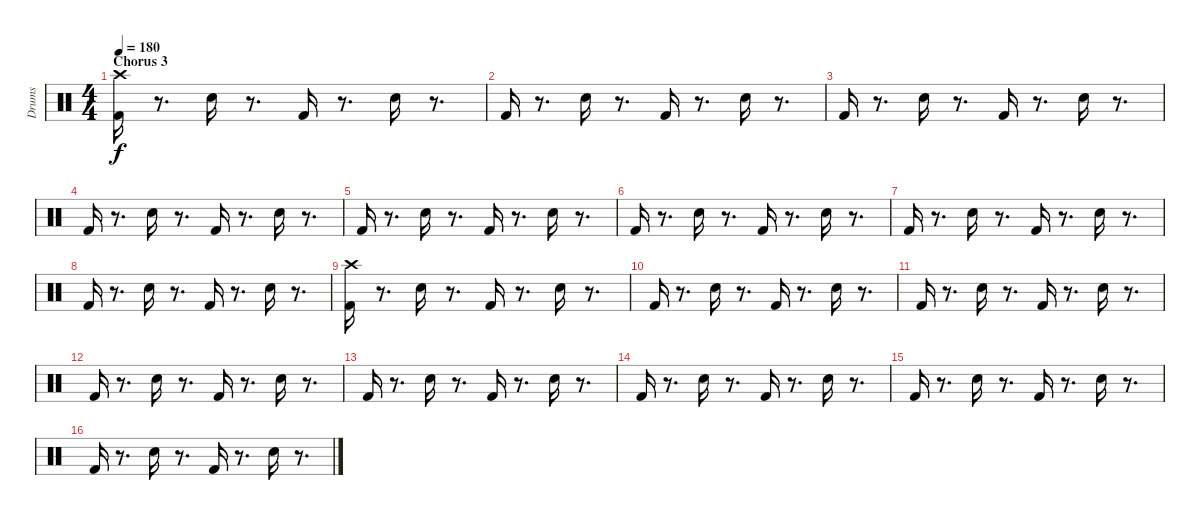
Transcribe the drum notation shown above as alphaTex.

\track ("Drums" "Drums") {instrument percussion}
\staff {score}
\articulation defaults
\ts (4 4)
\section ("" "Chorus 3")
\tempo 180
\clef neutral
\ks c
("Kick (hit) 2" "Crash high (hit)").16{dy f} r.8{d} "Snare (hit) 2".16 r.8{d} "Kick (hit) 2".16 r.8{d} "Snare (hit) 2".16 r.8{d} |
"Kick (hit) 2".16 r.8{d} "Snare (hit) 2".16 r.8{d} "Kick (hit) 2".16 r.8{d} "Snare (hit) 2".16 r.8{d} |
"Kick (hit) 2".16 r.8{d} "Snare (hit) 2".16 r.8{d} "Kick (hit) 2".16 r.8{d} "Snare (hit) 2".16 r.8{d} |
"Kick (hit) 2".16 r.8{d} "Snare (hit) 2".16 r.8{d} "Kick (hit) 2".16 r.8{d} "Snare (hit) 2".16 r.8{d} |
"Kick (hit) 2".16 r.8{d} "Snare (hit) 2".16 r.8{d} "Kick (hit) 2".16 r.8{d} "Snare (hit) 2".16 r.8{d} |
"Kick (hit) 2".16 r.8{d} "Snare (hit) 2".16 r.8{d} "Kick (hit) 2".16 r.8{d} "Snare (hit) 2".16 r.8{d} |
"Kick (hit) 2".16 r.8{d} "Snare (hit) 2".16 r.8{d} "Kick (hit) 2".16 r.8{d} "Snare (hit) 2".16 r.8{d} |
"Kick (hit) 2".16 r.8{d} "Snare (hit) 2".16 r.8{d} "Kick (hit) 2".16 r.8{d} "Snare (hit) 2".16 r.8{d} |
("Kick (hit) 2" "Crash high (hit)").16 r.8{d} "Snare (hit) 2".16 r.8{d} "Kick (hit) 2".16 r.8{d} "Snare (hit) 2".16 r.8{d} |
"Kick (hit) 2".16 r.8{d} "Snare (hit) 2".16 r.8{d} "Kick (hit) 2".16 r.8{d} "Snare (hit) 2".16 r.8{d} |
"Kick (hit) 2".16 r.8{d} "Snare (hit) 2".16 r.8{d} "Kick (hit) 2".16 r.8{d} "Snare (hit) 2".16 r.8{d} |
"Kick (hit) 2".16 r.8{d} "Snare (hit) 2".16 r.8{d} "Kick (hit) 2".16 r.8{d} "Snare (hit) 2".16 r.8{d} |
"Kick (hit) 2".16 r.8{d} "Snare (hit) 2".16 r.8{d} "Kick (hit) 2".16 r.8{d} "Snare (hit) 2".16 r.8{d} |
"Kick (hit) 2".16 r.8{d} "Snare (hit) 2".16 r.8{d} "Kick (hit) 2".16 r.8{d} "Snare (hit) 2".16 r.8{d} |
"Kick (hit) 2".16 r.8{d} "Snare (hit) 2".16 r.8{d} "Kick (hit) 2".16 r.8{d} "Snare (hit) 2".16 r.8{d} |
"Kick (hit) 2".16 r.8{d} "Snare (hit) 2".16 r.8{d} "Kick (hit) 2".16 r.8{d} "Snare (hit) 2".16 r.8{d}
